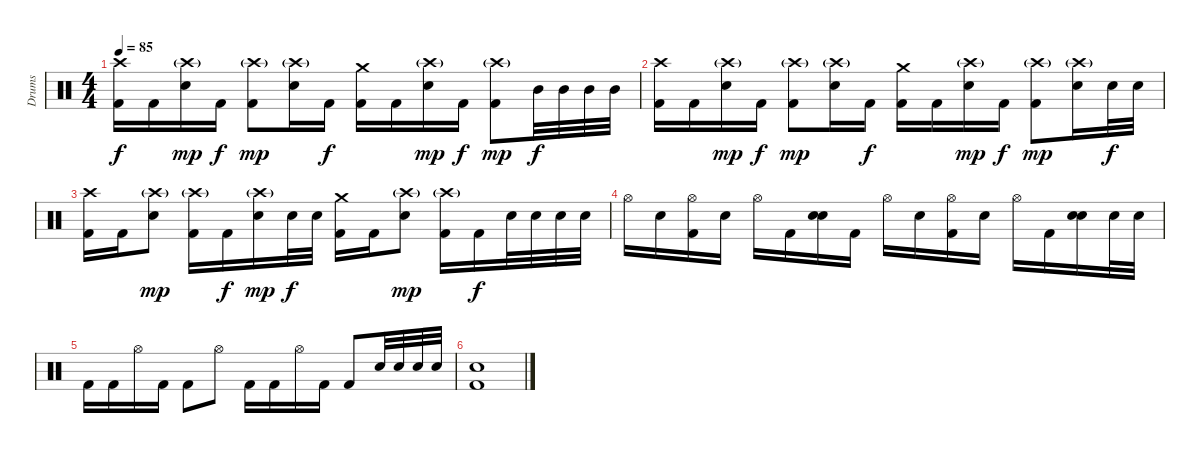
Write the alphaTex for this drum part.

\track ("Drums" "Drums") {instrument percussion}
\staff {score}
\articulation defaults
\ts (4 4)
\tempo 85
\clef neutral
\ks c
("Crash high (hit)" "Kick (hit) 2").16{dy f} "Kick (hit) 2".16 ("Crash high (hit)"{g} "Snare (hit) 2").16{dy mp} "Kick (hit) 2".16{dy f} ("Crash high (hit)"{g} "Kick (hit) 2").8{dy mp} ("Crash high (hit)"{g} "Snare (hit) 2").16 "Kick (hit) 2".16{dy f} ("Crash medium (hit)" "Kick (hit) 2").16 "Kick (hit) 2".16 ("Crash high (hit)"{g} "Snare (hit) 2").16{dy mp} "Kick (hit) 2".16{dy f} ("Crash high (hit)"{g} "Kick (hit) 2").8{dy mp} "Mid Tom (hit)".32{dy f} "Mid Tom (hit)".32 "Mid Tom (hit)".32 "Mid Tom (hit)".32 |
("Crash high (hit)" "Kick (hit) 2").16 "Kick (hit) 2".16 ("Crash high (hit)"{g} "Snare (hit) 2").16{dy mp} "Kick (hit) 2".16{dy f} ("Crash high (hit)"{g} "Kick (hit) 2").8{dy mp} ("Crash high (hit)"{g} "Snare (hit) 2").16 "Kick (hit) 2".16{dy f} ("Crash medium (hit)" "Kick (hit) 2").16 "Kick (hit) 2".16 ("Crash high (hit)"{g} "Snare (hit) 2").16{dy mp} "Kick (hit) 2".16{dy f} ("Crash high (hit)"{g} "Kick (hit) 2").8{dy mp} ("Crash high (hit)"{g} "Snare (hit) 2").16 "Snare (hit) 2".32{dy f} "Snare (hit) 2".32 |
("Crash high (hit)" "Kick (hit) 2").16 "Kick (hit) 2".16 ("Crash high (hit)"{g} "Snare (hit) 2").8{dy mp} ("Crash high (hit)"{g} "Kick (hit) 2").16 "Kick (hit) 2".16{dy f} ("Crash high (hit)"{g} "Snare (hit) 2").16{dy mp} "Snare (hit) 2".32{dy f} "Snare (hit) 2".32 ("Crash medium (hit)" "Kick (hit) 2").16 "Kick (hit) 2".16 ("Crash high (hit)"{g} "Snare (hit) 2").8{dy mp} ("Crash high (hit)"{g} "Kick (hit) 2").16 "Kick (hit) 2".16{dy f} "Snare (hit) 2".32 "Snare (hit) 2".32 "Snare (hit) 2".32 "Snare (hit) 2".32 |
"Hi-Hat (open)".16 "Snare (hit) 2".16 ("Hi-Hat (open)" "Kick (hit) 2").16 "Snare (hit) 2".16 "Hi-Hat (open)".16 "Kick (hit) 2".16 ("Snare (hit) 2" "Snare (hit) 2").16{bd 240} "Kick (hit) 2".16 "Hi-Hat (open)".16 "Snare (hit) 2".16 ("Hi-Hat (open)" "Kick (hit) 2").16 "Snare (hit) 2".16 "Hi-Hat (open)".16 "Kick (hit) 2".16 ("Snare (hit) 2" "Snare (hit) 2").16{bd 240} "Snare (hit) 2".32 "Snare (hit) 2".32 |
"Kick (hit) 2".16 "Kick (hit) 2".16 "Hi-Hat (open)".16 "Kick (hit) 2".16 "Kick (hit) 2".8 "Hi-Hat (open)".8 "Kick (hit) 2".16 "Kick (hit) 2".16 "Hi-Hat (open)".16 "Kick (hit) 2".16 "Kick (hit) 2".8 "Snare (hit) 2".32 "Snare (hit) 2".32 "Snare (hit) 2".32 "Snare (hit) 2".32 |
("Snare (hit) 2" "Kick (hit) 2").1
